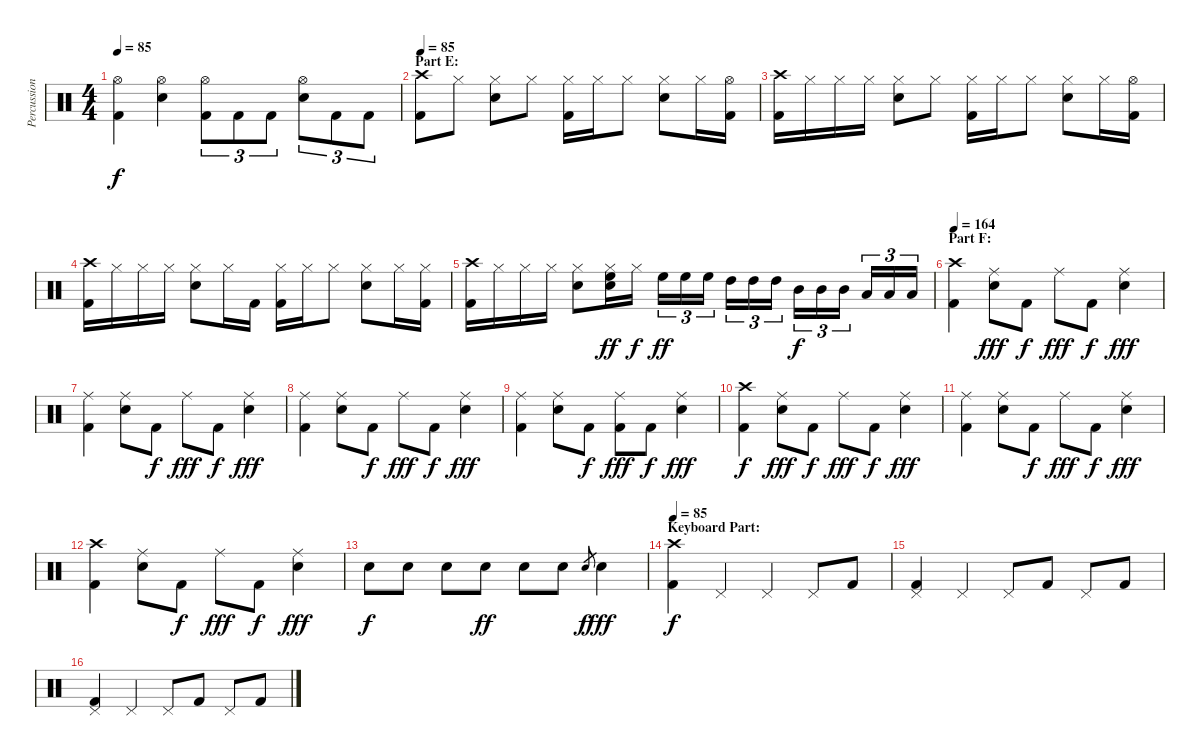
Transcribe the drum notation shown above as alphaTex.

\track ("Percussion" "Percussion") {instrument percussion}
\staff {score}
\articulation defaults
\ts (4 4)
\tempo 85
\clef neutral
\ks c
("Hi-Hat (open)" "Kick (hit) 2").4{dy f} ("Hi-Hat (open)" "Electric Snare (hit)").4 ("Hi-Hat (open)" "Kick (hit) 2").8{tu (3 2)} "Kick (hit) 2".8{tu (3 2)} "Kick (hit) 2".8{tu (3 2)} ("Hi-Hat (open)" "Electric Snare (hit)").8{tu (3 2)} "Kick (hit) 2".8{tu (3 2)} "Kick (hit) 2".8{tu (3 2)} |
\section ("" "Part E:")
\tempo 85
("Crash high (hit)" "Kick (hit) 2").8 "Hi-Hat (closed)".8 ("Hi-Hat (closed)" "Electric Snare (hit)").8 "Hi-Hat (closed)".8 ("Hi-Hat (closed)" "Kick (hit) 2").16 "Hi-Hat (closed)".16 "Hi-Hat (closed)".8 ("Hi-Hat (closed)" "Electric Snare (hit)").8 "Hi-Hat (closed)".16 ("Hi-Hat (open)" "Kick (hit) 2").16 |
("Crash high (hit)" "Kick (hit) 2").16 "Hi-Hat (closed)".16 "Hi-Hat (closed)".16 "Hi-Hat (closed)".16 ("Hi-Hat (closed)" "Electric Snare (hit)").8 "Hi-Hat (closed)".8 ("Hi-Hat (closed)" "Kick (hit) 2").16 "Hi-Hat (closed)".16 "Hi-Hat (closed)".8 ("Hi-Hat (closed)" "Electric Snare (hit)").8 "Hi-Hat (closed)".16 ("Hi-Hat (open)" "Kick (hit) 2").16 |
("Crash high (hit)" "Kick (hit) 2").16 "Hi-Hat (closed)".16 "Hi-Hat (closed)".16 "Hi-Hat (closed)".16 ("Hi-Hat (closed)" "Electric Snare (hit)").8 "Hi-Hat (closed)".16 "Kick (hit) 2".16 ("Hi-Hat (closed)" "Kick (hit) 2").16 "Hi-Hat (closed)".16 "Hi-Hat (closed)".8 ("Hi-Hat (closed)" "Electric Snare (hit)").8 "Hi-Hat (closed)".16 ("Hi-Hat (closed)" "Kick (hit) 2").16 |
("Crash high (hit)" "Kick (hit) 2").16 "Hi-Hat (closed)".16 "Hi-Hat (closed)".16 "Hi-Hat (closed)".16 ("Hi-Hat (closed)" "Electric Snare (hit)").8 ("Hi-Hat (closed)" "High Floor Tom (hit)" "Electric Snare (hit)").16{dy ff} "Hi-Hat (closed)".16{dy f} "High Floor Tom (hit)".16{tu (3 2) dy ff} "High Floor Tom (hit)".16{tu (3 2)} "High Floor Tom (hit)".16{tu (3 2)} "High Tom (hit)".16{tu (3 2)} "High Tom (hit)".16{tu (3 2)} "High Tom (hit)".16{tu (3 2)} "Mid Tom (hit)".16{tu (3 2) dy f} "Mid Tom (hit)".16{tu (3 2)} "Mid Tom (hit)".16{tu (3 2)} "Low Tom (hit)".16{tu (3 2)} "Low Tom (hit)".16{tu (3 2)} "Low Tom (hit)".16{tu (3 2)} |
\section ("" "Part F:")
\tempo 164
("Crash high (hit)" "Kick (hit) 2").4 ("Ride (middle)" "Electric Snare (hit)").8{dy fff} "Kick (hit) 2".8{dy f} "Ride (middle)".8{dy fff} "Kick (hit) 2".8{dy f} ("Ride (middle)" "Electric Snare (hit)").4{dy fff} |
("Ride (middle)" "Kick (hit) 2").4 ("Ride (middle)" "Electric Snare (hit)").8 "Kick (hit) 2".8{dy f} "Ride (middle)".8{dy fff} "Kick (hit) 2".8{dy f} ("Ride (middle)" "Electric Snare (hit)").4{dy fff} |
("Ride (middle)" "Kick (hit) 2").4 ("Ride (middle)" "Electric Snare (hit)").8 "Kick (hit) 2".8{dy f} "Ride (middle)".8{dy fff} "Kick (hit) 2".8{dy f} ("Ride (middle)" "Electric Snare (hit)").4{dy fff} |
("Ride (middle)" "Kick (hit) 2").4 ("Ride (middle)" "Electric Snare (hit)").8 "Kick (hit) 2".8{dy f} ("Ride (middle)" "Kick (hit) 2").8{dy fff} "Kick (hit) 2".8{dy f} ("Ride (middle)" "Electric Snare (hit)").4{dy fff} |
("Crash high (hit)" "Kick (hit) 2").4{dy f} ("Ride (middle)" "Electric Snare (hit)").8{dy fff} "Kick (hit) 2".8{dy f} "Ride (middle)".8{dy fff} "Kick (hit) 2".8{dy f} ("Ride (middle)" "Electric Snare (hit)").4{dy fff} |
("Ride (middle)" "Kick (hit) 2").4 ("Ride (middle)" "Electric Snare (hit)").8 "Kick (hit) 2".8{dy f} "Ride (middle)".8{dy fff} "Kick (hit) 2".8{dy f} ("Ride (middle)" "Electric Snare (hit)").4{dy fff} |
("Crash high (hit)" "Kick (hit) 2").4 ("Ride (middle)" "Electric Snare (hit)").8 "Kick (hit) 2".8{dy f} "Ride (middle)".8{dy fff} "Kick (hit) 2".8{dy f} ("Ride (middle)" "Electric Snare (hit)").4{dy fff} |
"Electric Snare (hit)".8{dy f} "Electric Snare (hit)".8 "Electric Snare (hit)".8 "Electric Snare (hit)".8{dy ff} "Electric Snare (hit)".8 "Electric Snare (hit)".8 "Electric Snare (hit)".8{gr dy f} "Electric Snare (hit)".4{dy fff} |
\section ("" "Keyboard Part:")
\tempo 85
("Crash high (hit)" "Kick (hit) 2").4{dy f} "Pedal Hi-Hat (hit)".4 "Pedal Hi-Hat (hit)".4 "Pedal Hi-Hat (hit)".8 "Kick (hit) 2".8 |
("Pedal Hi-Hat (hit)" "Kick (hit) 2").4 "Pedal Hi-Hat (hit)".4 "Pedal Hi-Hat (hit)".8 "Kick (hit) 2".8 "Pedal Hi-Hat (hit)".8 "Kick (hit) 2".8 |
("Pedal Hi-Hat (hit)" "Kick (hit) 2").4 "Pedal Hi-Hat (hit)".4 "Pedal Hi-Hat (hit)".8 "Kick (hit) 2".8 "Pedal Hi-Hat (hit)".8 "Kick (hit) 2".8
